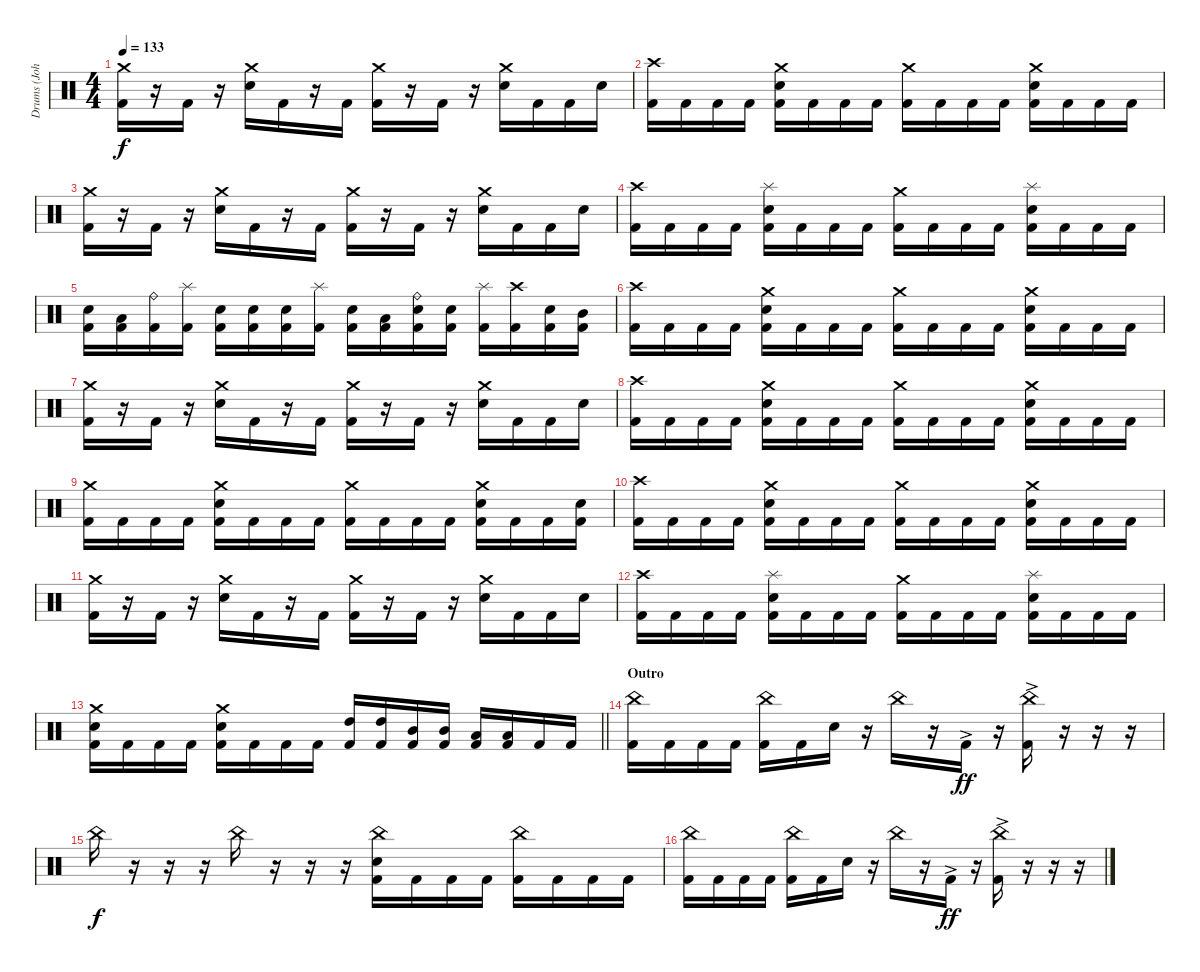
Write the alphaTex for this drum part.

\track ("Drums (John)" "Drums (Joh") {instrument percussion}
\staff {score}
\articulation defaults
\ts (4 4)
\tempo 133
\clef neutral
\ks c
("Crash medium (hit)" "Kick (hit) 2").16{dy f} r.16 "Kick (hit) 2".16 r.16 ("Crash medium (hit)" "Electric Snare (hit)").16 "Kick (hit) 2".16 r.16 "Kick (hit) 2".16 ("Crash medium (hit)" "Kick (hit) 2").16 r.16 "Kick (hit) 2".16 r.16 ("Crash medium (hit)" "Electric Snare (hit)").16 "Kick (hit) 2".16 "Kick (hit) 2".16 "Electric Snare (hit)".16 |
("Crash high (hit)" "Kick (hit) 2").16 "Kick (hit) 2".16 "Kick (hit) 2".16 "Kick (hit) 2".16 ("Crash medium (hit)" "Electric Snare (hit)" "Kick (hit) 2").16 "Kick (hit) 2".16 "Kick (hit) 2".16 "Kick (hit) 2".16 ("Crash medium (hit)" "Kick (hit) 2").16 "Kick (hit) 2".16 "Kick (hit) 2".16 "Kick (hit) 2".16 ("Crash medium (hit)" "Electric Snare (hit)" "Kick (hit) 2").16 "Kick (hit) 2".16 "Kick (hit) 2".16 "Kick (hit) 2".16 |
("Crash medium (hit)" "Kick (hit) 2").16 r.16 "Kick (hit) 2".16 r.16 ("Crash medium (hit)" "Electric Snare (hit)").16 "Kick (hit) 2".16 r.16 "Kick (hit) 2".16 ("Crash medium (hit)" "Kick (hit) 2").16 r.16 "Kick (hit) 2".16 r.16 ("Crash medium (hit)" "Electric Snare (hit)").16 "Kick (hit) 2".16 "Kick (hit) 2".16 "Electric Snare (hit)".16 |
("Crash high (hit)" "Kick (hit) 2").16 "Kick (hit) 2".16 "Kick (hit) 2".16 "Kick (hit) 2".16 ("Splash (hit)" "Electric Snare (hit)" "Kick (hit) 2").16 "Kick (hit) 2".16 "Kick (hit) 2".16 "Kick (hit) 2".16 ("Crash medium (hit)" "Kick (hit) 2").16 "Kick (hit) 2".16 "Kick (hit) 2".16 "Kick (hit) 2".16 ("Splash (hit)" "Electric Snare (hit)" "Kick (hit) 2").16 "Kick (hit) 2".16 "Kick (hit) 2".16 "Kick (hit) 2".16 |
("Electric Snare (hit)" "Kick (hit) 2").16 ("Low Tom (hit)" "Kick (hit) 2").16 ("Ride (bell)" "Kick (hit) 2").16 ("Splash (hit)" "Kick (hit) 2").16 ("Electric Snare (hit)" "Kick (hit) 2").16 ("Electric Snare (hit)" "Kick (hit) 2").16 ("Electric Snare (hit)" "Kick (hit) 2").16 ("Splash (hit)" "Kick (hit) 2").16 ("Electric Snare (hit)" "Kick (hit) 2").16 ("Low Tom (hit)" "Kick (hit) 2").16 ("Ride (bell)" "Electric Snare (hit)" "Kick (hit) 2").16 ("Electric Snare (hit)" "Kick (hit) 2").16 ("Splash (hit)" "Kick (hit) 2").16 ("Crash high (hit)" "Kick (hit) 2").16 ("Electric Snare (hit)" "Kick (hit) 2").16 ("Mid Tom (hit)" "Kick (hit) 2").16 |
("Crash high (hit)" "Kick (hit) 2").16 "Kick (hit) 2".16 "Kick (hit) 2".16 "Kick (hit) 2".16 ("Crash medium (hit)" "Electric Snare (hit)" "Kick (hit) 2").16 "Kick (hit) 2".16 "Kick (hit) 2".16 "Kick (hit) 2".16 ("Crash medium (hit)" "Kick (hit) 2").16 "Kick (hit) 2".16 "Kick (hit) 2".16 "Kick (hit) 2".16 ("Crash medium (hit)" "Electric Snare (hit)" "Kick (hit) 2").16 "Kick (hit) 2".16 "Kick (hit) 2".16 "Kick (hit) 2".16 |
("Crash medium (hit)" "Kick (hit) 2").16 r.16 "Kick (hit) 2".16 r.16 ("Crash medium (hit)" "Electric Snare (hit)").16 "Kick (hit) 2".16 r.16 "Kick (hit) 2".16 ("Crash medium (hit)" "Kick (hit) 2").16 r.16 "Kick (hit) 2".16 r.16 ("Crash medium (hit)" "Electric Snare (hit)").16 "Kick (hit) 2".16 "Kick (hit) 2".16 "Electric Snare (hit)".16 |
("Crash high (hit)" "Kick (hit) 2").16 "Kick (hit) 2".16 "Kick (hit) 2".16 "Kick (hit) 2".16 ("Crash medium (hit)" "Electric Snare (hit)" "Kick (hit) 2").16 "Kick (hit) 2".16 "Kick (hit) 2".16 "Kick (hit) 2".16 ("Crash medium (hit)" "Kick (hit) 2").16 "Kick (hit) 2".16 "Kick (hit) 2".16 "Kick (hit) 2".16 ("Crash medium (hit)" "Electric Snare (hit)" "Kick (hit) 2").16 "Kick (hit) 2".16 "Kick (hit) 2".16 "Kick (hit) 2".16 |
("Crash medium (hit)" "Kick (hit) 2").16 "Kick (hit) 2".16 "Kick (hit) 2".16 "Kick (hit) 2".16 ("Crash medium (hit)" "Electric Snare (hit)" "Kick (hit) 2").16 "Kick (hit) 2".16 "Kick (hit) 2".16 "Kick (hit) 2".16 ("Crash medium (hit)" "Kick (hit) 2").16 "Kick (hit) 2".16 "Kick (hit) 2".16 "Kick (hit) 2".16 ("Crash medium (hit)" "Electric Snare (hit)" "Kick (hit) 2").16 "Kick (hit) 2".16 "Kick (hit) 2".16 ("Electric Snare (hit)" "Kick (hit) 2").16 |
("Crash high (hit)" "Kick (hit) 2").16 "Kick (hit) 2".16 "Kick (hit) 2".16 "Kick (hit) 2".16 ("Crash medium (hit)" "Electric Snare (hit)" "Kick (hit) 2").16 "Kick (hit) 2".16 "Kick (hit) 2".16 "Kick (hit) 2".16 ("Crash medium (hit)" "Kick (hit) 2").16 "Kick (hit) 2".16 "Kick (hit) 2".16 "Kick (hit) 2".16 ("Crash medium (hit)" "Electric Snare (hit)" "Kick (hit) 2").16 "Kick (hit) 2".16 "Kick (hit) 2".16 "Kick (hit) 2".16 |
("Crash medium (hit)" "Kick (hit) 2").16 r.16 "Kick (hit) 2".16 r.16 ("Crash medium (hit)" "Electric Snare (hit)").16 "Kick (hit) 2".16 r.16 "Kick (hit) 2".16 ("Crash medium (hit)" "Kick (hit) 2").16 r.16 "Kick (hit) 2".16 r.16 ("Crash medium (hit)" "Electric Snare (hit)").16 "Kick (hit) 2".16 "Kick (hit) 2".16 "Electric Snare (hit)".16 |
("Crash high (hit)" "Kick (hit) 2").16 "Kick (hit) 2".16 "Kick (hit) 2".16 "Kick (hit) 2".16 ("Splash (hit)" "Electric Snare (hit)" "Kick (hit) 2").16 "Kick (hit) 2".16 "Kick (hit) 2".16 "Kick (hit) 2".16 ("Crash medium (hit)" "Kick (hit) 2").16 "Kick (hit) 2".16 "Kick (hit) 2".16 "Kick (hit) 2".16 ("Splash (hit)" "Electric Snare (hit)" "Kick (hit) 2").16 "Kick (hit) 2".16 "Kick (hit) 2".16 "Kick (hit) 2".16 |
\barLineRight lightlight
("Crash medium (hit)" "Electric Snare (hit)" "Kick (hit) 2").16 "Kick (hit) 2".16 "Kick (hit) 2".16 "Kick (hit) 2".16 ("Crash medium (hit)" "Electric Snare (hit)" "Kick (hit) 2").16 "Kick (hit) 2".16 "Kick (hit) 2".16 "Kick (hit) 2".16 ("High Tom (hit)" "Kick (hit) 2").16 ("High Tom (hit)" "Kick (hit) 2").16 ("Mid Tom (hit)" "Kick (hit) 2").16 ("Mid Tom (hit)" "Kick (hit) 2").16 ("Low Tom (hit)" "Kick (hit) 2").16 ("Low Tom (hit)" "Kick (hit) 2").16 "Kick (hit) 2".16 "Kick (hit) 2".16 |
\section ("" "Outro")
("China (hit)" "Kick (hit) 2").16 "Kick (hit) 2".16 "Kick (hit) 2".16 "Kick (hit) 2".16 ("China (hit)" "Kick (hit) 2").16 "Kick (hit) 2".16 "Electric Snare (hit)".16 r.16 "China (hit)".16 r.16 "Kick (hit) 2"{ac}.16{dy ff} r.16 ("China (hit)" "Kick (hit) 2"{ac}).16 r.16 r.16 r.16 |
"China (hit)".16{dy f} r.16 r.16 r.16 "China (hit)".16 r.16 r.16 r.16 ("China (hit)" "Electric Snare (hit)" "Kick (hit) 2").16 "Kick (hit) 2".16 "Kick (hit) 2".16 "Kick (hit) 2".16 ("China (hit)" "Kick (hit) 2").16 "Kick (hit) 2".16 "Kick (hit) 2".16 "Kick (hit) 2".16 |
("China (hit)" "Kick (hit) 2").16 "Kick (hit) 2".16 "Kick (hit) 2".16 "Kick (hit) 2".16 ("China (hit)" "Kick (hit) 2").16 "Kick (hit) 2".16 "Electric Snare (hit)".16 r.16 "China (hit)".16 r.16 "Kick (hit) 2"{ac}.16{dy ff} r.16 ("China (hit)" "Kick (hit) 2"{ac}).16 r.16 r.16 r.16
